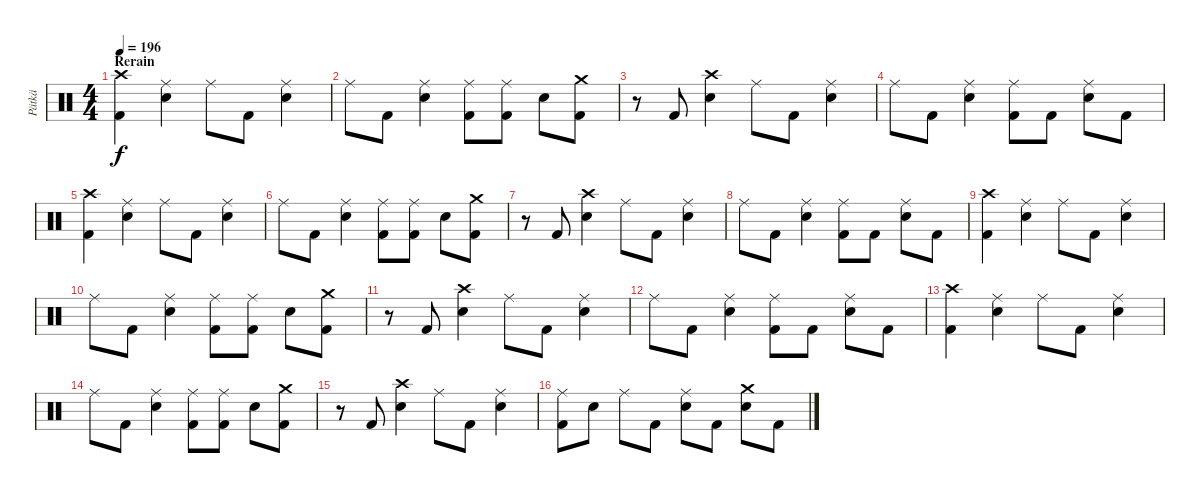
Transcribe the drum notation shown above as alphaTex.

\track ("Pätkä" "Pätkä") {instrument percussion}
\staff {score}
\articulation defaults
\ts (4 4)
\section ("" "Rerain")
\tempo 196
\clef neutral
\ks c
("Crash high (hit)" "Kick (hit) 2").4{dy f} ("Ride (middle)" "Electric Snare (hit)").4 "Ride (middle)".8 "Kick (hit) 2".8 ("Ride (middle)" "Electric Snare (hit)").4 |
"Ride (middle)".8 "Kick (hit) 2".8 ("Ride (middle)" "Electric Snare (hit)").4 ("Ride (middle)" "Kick (hit) 2").8 ("Ride (middle)" "Kick (hit) 2").8 "Electric Snare (hit)".8 ("Crash medium (hit)" "Kick (hit) 2").8 |
r.8 "Kick (hit) 2".8 ("Crash high (hit)" "Electric Snare (hit)").4 "Ride (middle)".8 "Kick (hit) 2".8 ("Ride (middle)" "Electric Snare (hit)").4 |
"Ride (middle)".8 "Kick (hit) 2".8 ("Ride (middle)" "Electric Snare (hit)").4 ("Ride (middle)" "Kick (hit) 2").8 "Kick (hit) 2".8 ("Ride (middle)" "Electric Snare (hit)").8 "Kick (hit) 2".8 |
("Crash high (hit)" "Kick (hit) 2").4 ("Ride (middle)" "Electric Snare (hit)").4 "Ride (middle)".8 "Kick (hit) 2".8 ("Ride (middle)" "Electric Snare (hit)").4 |
"Ride (middle)".8 "Kick (hit) 2".8 ("Ride (middle)" "Electric Snare (hit)").4 ("Ride (middle)" "Kick (hit) 2").8 ("Ride (middle)" "Kick (hit) 2").8 "Electric Snare (hit)".8 ("Crash medium (hit)" "Kick (hit) 2").8 |
r.8 "Kick (hit) 2".8 ("Crash high (hit)" "Electric Snare (hit)").4 "Ride (middle)".8 "Kick (hit) 2".8 ("Ride (middle)" "Electric Snare (hit)").4 |
"Ride (middle)".8 "Kick (hit) 2".8 ("Ride (middle)" "Electric Snare (hit)").4 ("Ride (middle)" "Kick (hit) 2").8 "Kick (hit) 2".8 ("Ride (middle)" "Electric Snare (hit)").8 "Kick (hit) 2".8 |
("Crash high (hit)" "Kick (hit) 2").4 ("Ride (middle)" "Electric Snare (hit)").4 "Ride (middle)".8 "Kick (hit) 2".8 ("Ride (middle)" "Electric Snare (hit)").4 |
"Ride (middle)".8 "Kick (hit) 2".8 ("Ride (middle)" "Electric Snare (hit)").4 ("Ride (middle)" "Kick (hit) 2").8 ("Ride (middle)" "Kick (hit) 2").8 "Electric Snare (hit)".8 ("Crash medium (hit)" "Kick (hit) 2").8 |
r.8 "Kick (hit) 2".8 ("Crash high (hit)" "Electric Snare (hit)").4 "Ride (middle)".8 "Kick (hit) 2".8 ("Ride (middle)" "Electric Snare (hit)").4 |
"Ride (middle)".8 "Kick (hit) 2".8 ("Ride (middle)" "Electric Snare (hit)").4 ("Ride (middle)" "Kick (hit) 2").8 "Kick (hit) 2".8 ("Ride (middle)" "Electric Snare (hit)").8 "Kick (hit) 2".8 |
("Crash high (hit)" "Kick (hit) 2").4 ("Ride (middle)" "Electric Snare (hit)").4 "Ride (middle)".8 "Kick (hit) 2".8 ("Ride (middle)" "Electric Snare (hit)").4 |
"Ride (middle)".8 "Kick (hit) 2".8 ("Ride (middle)" "Electric Snare (hit)").4 ("Ride (middle)" "Kick (hit) 2").8 ("Ride (middle)" "Kick (hit) 2").8 "Electric Snare (hit)".8 ("Crash medium (hit)" "Kick (hit) 2").8 |
r.8 "Kick (hit) 2".8 ("Crash high (hit)" "Electric Snare (hit)").4 "Ride (middle)".8 "Kick (hit) 2".8 ("Ride (middle)" "Electric Snare (hit)").4 |
("Ride (middle)" "Kick (hit) 2").8 "Electric Snare (hit)".8 "Ride (middle)".8 "Kick (hit) 2".8 ("Ride (middle)" "Electric Snare (hit)").8 "Kick (hit) 2".8 ("Crash medium (hit)" "Electric Snare (hit)").8 "Kick (hit) 2".8
